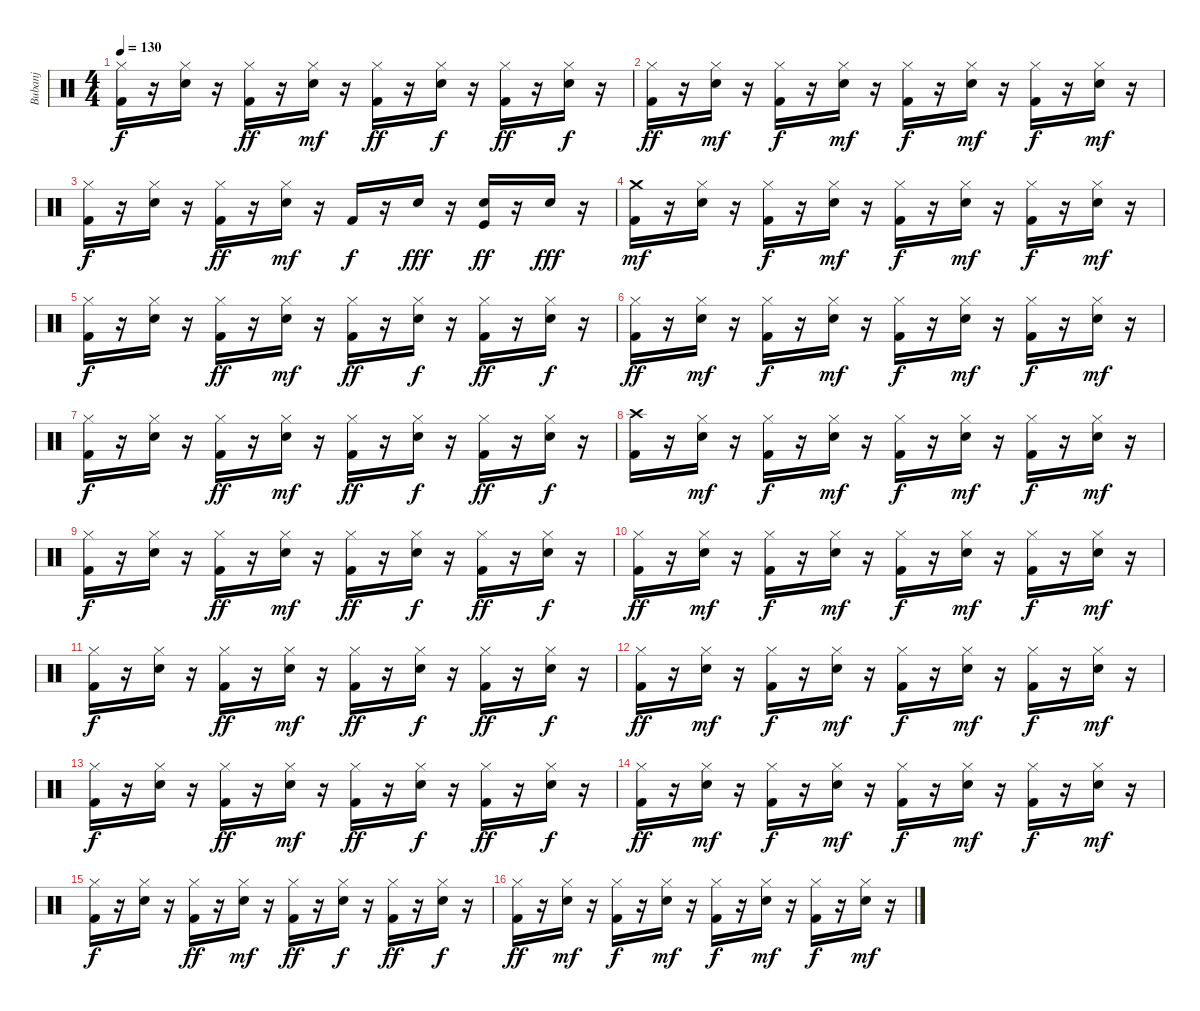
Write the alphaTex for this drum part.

\track ("Bubanj" "Bubanj") {instrument percussion}
\staff {score}
\articulation defaults
\ts (4 4)
\tempo 130
\clef neutral
\ks c
("Kick (hit) 2" "Hi-Hat (closed)").16{dy f} r.16 ("Snare (hit) 2" "Hi-Hat (closed)").16 r.16 ("Kick (hit) 2" "Hi-Hat (closed)").16{dy ff} r.16 ("Snare (hit) 2" "Hi-Hat (closed)").16{dy mf} r.16 ("Kick (hit) 2" "Hi-Hat (closed)").16{dy ff} r.16 ("Snare (hit) 2" "Hi-Hat (closed)").16{dy f} r.16 ("Kick (hit) 2" "Hi-Hat (closed)").16{dy ff} r.16 ("Snare (hit) 2" "Hi-Hat (closed)").16{dy f} r.16 |
("Kick (hit) 2" "Hi-Hat (closed)").16{dy ff} r.16 ("Snare (hit) 2" "Hi-Hat (closed)").16{dy mf} r.16 ("Kick (hit) 2" "Hi-Hat (closed)").16{dy f} r.16 ("Snare (hit) 2" "Hi-Hat (closed)").16{dy mf} r.16 ("Kick (hit) 2" "Hi-Hat (closed)").16{dy f} r.16 ("Snare (hit) 2" "Hi-Hat (closed)").16{dy mf} r.16 ("Kick (hit) 2" "Hi-Hat (closed)").16{dy f} r.16 ("Snare (hit) 2" "Hi-Hat (closed)").16{dy mf} r.16 |
("Kick (hit) 2" "Hi-Hat (closed)").16{dy f} r.16 ("Snare (hit) 2" "Hi-Hat (closed)").16 r.16 ("Kick (hit) 2" "Hi-Hat (closed)").16{dy ff} r.16 ("Snare (hit) 2" "Hi-Hat (closed)").16{dy mf} r.16 "Kick (hit) 2".16{dy f} r.16 "Snare (hit) 2".16{dy fff} r.16 ("Snare (hit) 2" "Kick (hit)").16{dy ff} r.16 "Snare (hit) 2".16{dy fff} r.16 |
("Kick (hit) 2" "Crash medium (hit)").16{dy mf} r.16 ("Snare (hit) 2" "Hi-Hat (closed)").16 r.16 ("Kick (hit) 2" "Hi-Hat (closed)").16{dy f} r.16 ("Snare (hit) 2" "Hi-Hat (closed)").16{dy mf} r.16 ("Kick (hit) 2" "Hi-Hat (closed)").16{dy f} r.16 ("Snare (hit) 2" "Hi-Hat (closed)").16{dy mf} r.16 ("Kick (hit) 2" "Hi-Hat (closed)").16{dy f} r.16 ("Snare (hit) 2" "Hi-Hat (closed)").16{dy mf} r.16 |
("Kick (hit) 2" "Hi-Hat (closed)").16{dy f} r.16 ("Snare (hit) 2" "Hi-Hat (closed)").16 r.16 ("Kick (hit) 2" "Hi-Hat (closed)").16{dy ff} r.16 ("Snare (hit) 2" "Hi-Hat (closed)").16{dy mf} r.16 ("Kick (hit) 2" "Hi-Hat (closed)").16{dy ff} r.16 ("Snare (hit) 2" "Hi-Hat (closed)").16{dy f} r.16 ("Kick (hit) 2" "Hi-Hat (closed)").16{dy ff} r.16 ("Snare (hit) 2" "Hi-Hat (closed)").16{dy f} r.16 |
("Kick (hit) 2" "Hi-Hat (closed)").16{dy ff} r.16 ("Snare (hit) 2" "Hi-Hat (closed)").16{dy mf} r.16 ("Kick (hit) 2" "Hi-Hat (closed)").16{dy f} r.16 ("Snare (hit) 2" "Hi-Hat (closed)").16{dy mf} r.16 ("Kick (hit) 2" "Hi-Hat (closed)").16{dy f} r.16 ("Snare (hit) 2" "Hi-Hat (closed)").16{dy mf} r.16 ("Kick (hit) 2" "Hi-Hat (closed)").16{dy f} r.16 ("Snare (hit) 2" "Hi-Hat (closed)").16{dy mf} r.16 |
("Kick (hit) 2" "Hi-Hat (closed)").16{dy f} r.16 ("Snare (hit) 2" "Hi-Hat (closed)").16 r.16 ("Kick (hit) 2" "Hi-Hat (closed)").16{dy ff} r.16 ("Snare (hit) 2" "Hi-Hat (closed)").16{dy mf} r.16 ("Kick (hit) 2" "Hi-Hat (closed)").16{dy ff} r.16 ("Snare (hit) 2" "Hi-Hat (closed)").16{dy f} r.16 ("Kick (hit) 2" "Hi-Hat (closed)").16{dy ff} r.16 ("Snare (hit) 2" "Hi-Hat (closed)").16{dy f} r.16 |
("Kick (hit) 2" "Crash high (hit)").16 r.16 ("Snare (hit) 2" "Hi-Hat (closed)").16{dy mf} r.16 ("Kick (hit) 2" "Hi-Hat (closed)").16{dy f} r.16 ("Snare (hit) 2" "Hi-Hat (closed)").16{dy mf} r.16 ("Kick (hit) 2" "Hi-Hat (closed)").16{dy f} r.16 ("Snare (hit) 2" "Hi-Hat (closed)").16{dy mf} r.16 ("Kick (hit) 2" "Hi-Hat (closed)").16{dy f} r.16 ("Snare (hit) 2" "Hi-Hat (closed)").16{dy mf} r.16 |
("Kick (hit) 2" "Hi-Hat (closed)").16{dy f} r.16 ("Snare (hit) 2" "Hi-Hat (closed)").16 r.16 ("Kick (hit) 2" "Hi-Hat (closed)").16{dy ff} r.16 ("Snare (hit) 2" "Hi-Hat (closed)").16{dy mf} r.16 ("Kick (hit) 2" "Hi-Hat (closed)").16{dy ff} r.16 ("Snare (hit) 2" "Hi-Hat (closed)").16{dy f} r.16 ("Kick (hit) 2" "Hi-Hat (closed)").16{dy ff} r.16 ("Snare (hit) 2" "Hi-Hat (closed)").16{dy f} r.16 |
("Kick (hit) 2" "Hi-Hat (closed)").16{dy ff} r.16 ("Snare (hit) 2" "Hi-Hat (closed)").16{dy mf} r.16 ("Kick (hit) 2" "Hi-Hat (closed)").16{dy f} r.16 ("Snare (hit) 2" "Hi-Hat (closed)").16{dy mf} r.16 ("Kick (hit) 2" "Hi-Hat (closed)").16{dy f} r.16 ("Snare (hit) 2" "Hi-Hat (closed)").16{dy mf} r.16 ("Kick (hit) 2" "Hi-Hat (closed)").16{dy f} r.16 ("Snare (hit) 2" "Hi-Hat (closed)").16{dy mf} r.16 |
("Kick (hit) 2" "Hi-Hat (closed)").16{dy f} r.16 ("Snare (hit) 2" "Hi-Hat (closed)").16 r.16 ("Kick (hit) 2" "Hi-Hat (closed)").16{dy ff} r.16 ("Snare (hit) 2" "Hi-Hat (closed)").16{dy mf} r.16 ("Kick (hit) 2" "Hi-Hat (closed)").16{dy ff} r.16 ("Snare (hit) 2" "Hi-Hat (closed)").16{dy f} r.16 ("Kick (hit) 2" "Hi-Hat (closed)").16{dy ff} r.16 ("Snare (hit) 2" "Hi-Hat (closed)").16{dy f} r.16 |
("Kick (hit) 2" "Hi-Hat (closed)").16{dy ff} r.16 ("Snare (hit) 2" "Hi-Hat (closed)").16{dy mf} r.16 ("Kick (hit) 2" "Hi-Hat (closed)").16{dy f} r.16 ("Snare (hit) 2" "Hi-Hat (closed)").16{dy mf} r.16 ("Kick (hit) 2" "Hi-Hat (closed)").16{dy f} r.16 ("Snare (hit) 2" "Hi-Hat (closed)").16{dy mf} r.16 ("Kick (hit) 2" "Hi-Hat (closed)").16{dy f} r.16 ("Snare (hit) 2" "Hi-Hat (closed)").16{dy mf} r.16 |
("Kick (hit) 2" "Hi-Hat (closed)").16{dy f} r.16 ("Snare (hit) 2" "Hi-Hat (closed)").16 r.16 ("Kick (hit) 2" "Hi-Hat (closed)").16{dy ff} r.16 ("Snare (hit) 2" "Hi-Hat (closed)").16{dy mf} r.16 ("Kick (hit) 2" "Hi-Hat (closed)").16{dy ff} r.16 ("Snare (hit) 2" "Hi-Hat (closed)").16{dy f} r.16 ("Kick (hit) 2" "Hi-Hat (closed)").16{dy ff} r.16 ("Snare (hit) 2" "Hi-Hat (closed)").16{dy f} r.16 |
("Kick (hit) 2" "Hi-Hat (closed)").16{dy ff} r.16 ("Snare (hit) 2" "Hi-Hat (closed)").16{dy mf} r.16 ("Kick (hit) 2" "Hi-Hat (closed)").16{dy f} r.16 ("Snare (hit) 2" "Hi-Hat (closed)").16{dy mf} r.16 ("Kick (hit) 2" "Hi-Hat (closed)").16{dy f} r.16 ("Snare (hit) 2" "Hi-Hat (closed)").16{dy mf} r.16 ("Kick (hit) 2" "Hi-Hat (closed)").16{dy f} r.16 ("Snare (hit) 2" "Hi-Hat (closed)").16{dy mf} r.16 |
("Kick (hit) 2" "Hi-Hat (closed)").16{dy f} r.16 ("Snare (hit) 2" "Hi-Hat (closed)").16 r.16 ("Kick (hit) 2" "Hi-Hat (closed)").16{dy ff} r.16 ("Snare (hit) 2" "Hi-Hat (closed)").16{dy mf} r.16 ("Kick (hit) 2" "Hi-Hat (closed)").16{dy ff} r.16 ("Snare (hit) 2" "Hi-Hat (closed)").16{dy f} r.16 ("Kick (hit) 2" "Hi-Hat (closed)").16{dy ff} r.16 ("Snare (hit) 2" "Hi-Hat (closed)").16{dy f} r.16 |
("Kick (hit) 2" "Hi-Hat (closed)").16{dy ff} r.16 ("Snare (hit) 2" "Hi-Hat (closed)").16{dy mf} r.16 ("Kick (hit) 2" "Hi-Hat (closed)").16{dy f} r.16 ("Snare (hit) 2" "Hi-Hat (closed)").16{dy mf} r.16 ("Kick (hit) 2" "Hi-Hat (closed)").16{dy f} r.16 ("Snare (hit) 2" "Hi-Hat (closed)").16{dy mf} r.16 ("Kick (hit) 2" "Hi-Hat (closed)").16{dy f} r.16 ("Snare (hit) 2" "Hi-Hat (closed)").16{dy mf} r.16
